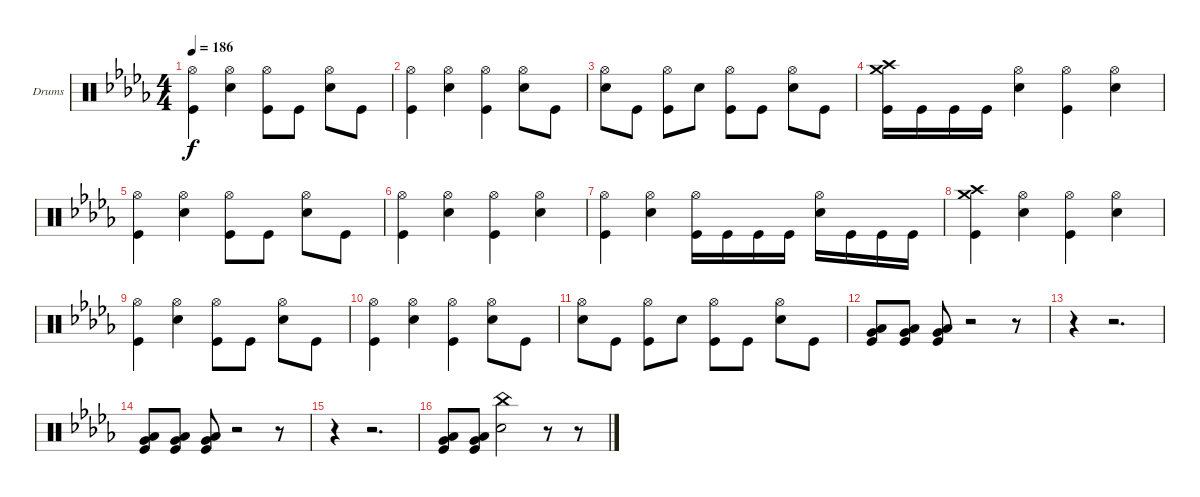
\bracketExtendMode groupsimilarinstruments
\firstSystemTrackNameOrientation horizontal
\otherSystemsTrackNameOrientation horizontal
\track ("Drumkit" "Drums") {instrument percussion}
\staff {score}
\articulation defaults
\ts (4 4)
\tempo 186
\clef neutral
\ks db
("Hi-Hat (open)" "Kick (hit)").4{dy f} ("Hi-Hat (open)" "Snare (hit) 2").4 ("Hi-Hat (open)" "Kick (hit)").8 "Kick (hit)".8 ("Hi-Hat (open)" "Snare (hit) 2").8 "Kick (hit)".8 |
("Hi-Hat (open)" "Kick (hit)").4 ("Hi-Hat (open)" "Snare (hit) 2").4 ("Hi-Hat (open)" "Kick (hit)").4 ("Hi-Hat (open)" "Snare (hit) 2").8 "Kick (hit)".8 |
("Hi-Hat (open)" "Snare (hit) 2").8 "Kick (hit)".8 ("Hi-Hat (open)" "Kick (hit)").8 "Snare (hit) 2".8 ("Hi-Hat (open)" "Kick (hit)").8 "Kick (hit)".8 ("Hi-Hat (open)" "Snare (hit) 2").8 "Kick (hit)".8 |
("Crash high (hit)" "Crash medium (hit)" "Kick (hit)").16 "Kick (hit)".16 "Kick (hit)".16 "Kick (hit)".16 ("Hi-Hat (open)" "Snare (hit) 2").4 ("Hi-Hat (open)" "Kick (hit)").4 ("Hi-Hat (open)" "Snare (hit) 2").4 |
("Hi-Hat (open)" "Kick (hit)").4 ("Hi-Hat (open)" "Snare (hit) 2").4 ("Hi-Hat (open)" "Kick (hit)").8 "Kick (hit)".8 ("Hi-Hat (open)" "Snare (hit) 2").8 "Kick (hit)".8 |
("Hi-Hat (open)" "Kick (hit)").4 ("Hi-Hat (open)" "Snare (hit) 2").4 ("Hi-Hat (open)" "Kick (hit)").4 ("Hi-Hat (open)" "Snare (hit) 2").4 |
("Hi-Hat (open)" "Kick (hit)").4 ("Hi-Hat (open)" "Snare (hit) 2").4 ("Hi-Hat (open)" "Kick (hit)").16 "Kick (hit)".16 "Kick (hit)".16 "Kick (hit)".16 ("Hi-Hat (open)" "Snare (hit) 2").16 "Kick (hit)".16 "Kick (hit)".16 "Kick (hit)".16 |
("Crash high (hit)" "Crash medium (hit)" "Kick (hit)").4 ("Hi-Hat (open)" "Snare (hit) 2").4 ("Hi-Hat (open)" "Kick (hit)").4 ("Hi-Hat (open)" "Snare (hit) 2").4 |
("Hi-Hat (open)" "Kick (hit)").4 ("Hi-Hat (open)" "Snare (hit) 2").4 ("Hi-Hat (open)" "Kick (hit)").8 "Kick (hit)".8 ("Hi-Hat (open)" "Snare (hit) 2").8 "Kick (hit)".8 |
("Hi-Hat (open)" "Kick (hit)").4 ("Hi-Hat (open)" "Snare (hit) 2").4 ("Hi-Hat (open)" "Kick (hit)").4 ("Hi-Hat (open)" "Snare (hit) 2").8 "Kick (hit)".8 |
("Hi-Hat (open)" "Snare (hit) 2").8 "Kick (hit)".8 ("Hi-Hat (open)" "Kick (hit)").8 "Snare (hit) 2".8 ("Hi-Hat (open)" "Kick (hit)").8 "Kick (hit)".8 ("Hi-Hat (open)" "Snare (hit) 2").8 "Kick (hit)".8 |
("Low Tom (hit)" "Very Low Tom (hit)" "Kick (hit)").8 ("Low Tom (hit)" "Very Low Tom (hit)" "Kick (hit)").8 ("Low Tom (hit)" "Very Low Tom (hit)" "Kick (hit)").8 r.2 r.8 |
r.4 r.2{d} |
("Low Tom (hit)" "Very Low Tom (hit)" "Kick (hit)").8 ("Low Tom (hit)" "Very Low Tom (hit)" "Kick (hit)").8 ("Low Tom (hit)" "Very Low Tom (hit)" "Kick (hit)").8 r.2 r.8 |
r.4 r.2{d} |
("Low Tom (hit)" "Very Low Tom (hit)" "Kick (hit)").8 ("Low Tom (hit)" "Very Low Tom (hit)" "Kick (hit)").8 ("China (hit)" "Snare (hit) 2").2 r.8 r.8
